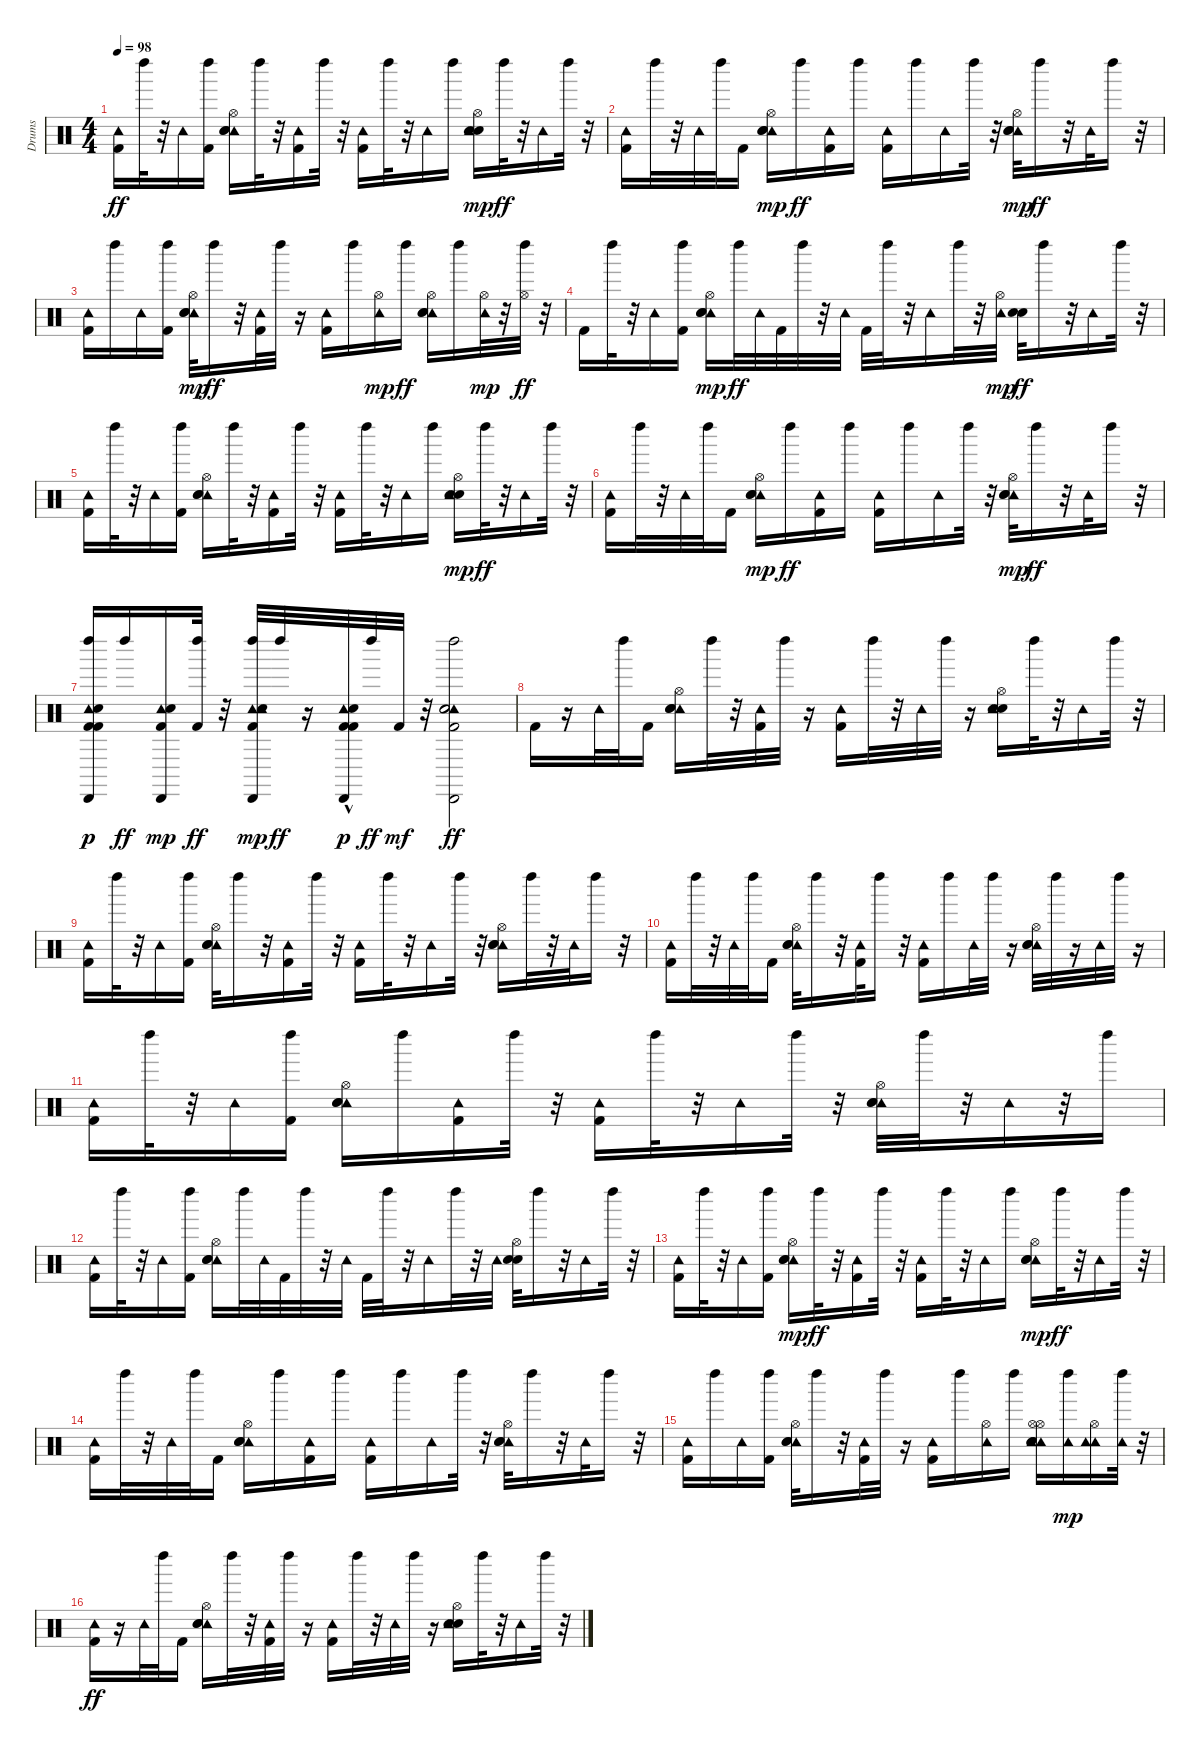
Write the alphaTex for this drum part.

\track ("Drums" "Drums") {instrument percussion}
\staff {score}
\articulation defaults
\ts (4 4)
\tempo 98
\clef neutral
\ks c
("Tambourine (hit)" "Kick (hit) 2").16{dy ff} "Left Maraca (hit)".32 r.32 "Tambourine (hit)".16 ("Left Maraca (hit)" "Kick (hit) 2").16 ("Tambourine (hit)" "Hi-Hat (open)" "Snare (hit) 2" "Electric Snare (hit)").16 "Left Maraca (hit)".32 r.32 ("Tambourine (hit)" "Kick (hit) 2").16 "Left Maraca (hit)".32 r.32 ("Kick (hit) 2" "Tambourine (hit)").16 "Left Maraca (hit)".32 r.32 "Tambourine (hit)".16 "Left Maraca (hit)".16 ("Electric Snare (hit)" "Tambourine (hit)" "Snare (hit) 2" "Hi-Hat (open)").16{dy mp} "Left Maraca (hit)".32{dy ff} r.32 "Tambourine (hit)".16 "Left Maraca (hit)".32 r.32 |
("Tambourine (hit)" "Kick (hit) 2").16 "Left Maraca (hit)".32 r.32 "Tambourine (hit)".32 "Left Maraca (hit)".32 "Kick (hit) 2".16 ("Tambourine (hit)" "Electric Snare (hit)" "Snare (hit) 2" "Hi-Hat (open)").16{dy mp} "Left Maraca (hit)".16{dy ff} ("Tambourine (hit)" "Kick (hit) 2").16 "Left Maraca (hit)".16 ("Tambourine (hit)" "Kick (hit) 2").16 "Left Maraca (hit)".16 "Tambourine (hit)".16 "Left Maraca (hit)".32 r.32 ("Tambourine (hit)" "Electric Snare (hit)" "Snare (hit) 2" "Hi-Hat (open)").32{dy mp} "Left Maraca (hit)".16{dy ff} r.32 "Tambourine (hit)".32 "Left Maraca (hit)".16 r.32 |
("Tambourine (hit)" "Kick (hit) 2").16 "Left Maraca (hit)".16 "Tambourine (hit)".16 ("Left Maraca (hit)" "Kick (hit) 2").16 ("Tambourine (hit)" "Electric Snare (hit)" "Snare (hit) 2" "Hi-Hat (open)").32{dy mp} "Left Maraca (hit)".16{dy ff} r.32 ("Tambourine (hit)" "Kick (hit) 2").32 "Left Maraca (hit)".32 r.16 ("Tambourine (hit)" "Kick (hit) 2").16 "Left Maraca (hit)".16 ("Tambourine (hit)" "Hi-Hat (open)").16{dy mp} "Left Maraca (hit)".16{dy ff} ("Tambourine (hit)" "Snare (hit) 2" "Hi-Hat (open)" "Electric Snare (hit)").16 "Left Maraca (hit)".16 ("Tambourine (hit)" "Hi-Hat (open)").32{dy mp} r.32 ("Hi-Hat (open)" "Left Maraca (hit)").32{dy ff} r.32 |
"Kick (hit) 2".16 "Left Maraca (hit)".32 r.32 "Tambourine (hit)".16 ("Left Maraca (hit)" "Kick (hit) 2").16 ("Tambourine (hit)" "Electric Snare (hit)" "Snare (hit) 2" "Hi-Hat (open)").16{dy mp} "Left Maraca (hit)".32{dy ff} "Tambourine (hit)".32 "Kick (hit) 2".32 "Left Maraca (hit)".32 r.32 "Tambourine (hit)".32 "Kick (hit) 2".32 "Left Maraca (hit)".32 r.32 "Tambourine (hit)".16 "Left Maraca (hit)".32 r.32 ("Tambourine (hit)" "Hi-Hat (open)").32{dy mp} ("Snare (hit) 2" "Electric Snare (hit)").32{dy ff} "Left Maraca (hit)".16 r.32 "Tambourine (hit)".16 "Left Maraca (hit)".32 r.32 |
("Tambourine (hit)" "Kick (hit) 2").16 "Left Maraca (hit)".32 r.32 "Tambourine (hit)".16 ("Left Maraca (hit)" "Kick (hit) 2").16 ("Tambourine (hit)" "Hi-Hat (open)" "Snare (hit) 2" "Electric Snare (hit)").16 "Left Maraca (hit)".32 r.32 ("Tambourine (hit)" "Kick (hit) 2").16 "Left Maraca (hit)".32 r.32 ("Kick (hit) 2" "Tambourine (hit)").16 "Left Maraca (hit)".32 r.32 "Tambourine (hit)".16 "Left Maraca (hit)".16 ("Electric Snare (hit)" "Tambourine (hit)" "Snare (hit) 2" "Hi-Hat (open)").16{dy mp} "Left Maraca (hit)".32{dy ff} r.32 "Tambourine (hit)".16 "Left Maraca (hit)".32 r.32 |
("Tambourine (hit)" "Kick (hit) 2").16 "Left Maraca (hit)".32 r.32 "Tambourine (hit)".32 "Left Maraca (hit)".32 "Kick (hit) 2".16 ("Tambourine (hit)" "Electric Snare (hit)" "Snare (hit) 2" "Hi-Hat (open)").16{dy mp} "Left Maraca (hit)".16{dy ff} ("Tambourine (hit)" "Kick (hit) 2").16 "Left Maraca (hit)".16 ("Tambourine (hit)" "Kick (hit) 2").16 "Left Maraca (hit)".16 "Tambourine (hit)".16 "Left Maraca (hit)".32 r.32 ("Tambourine (hit)" "Electric Snare (hit)" "Snare (hit) 2" "Hi-Hat (open)").32{dy mp} "Left Maraca (hit)".16{dy ff} r.32 "Tambourine (hit)".32 "Left Maraca (hit)".16 r.32 |
("Tambourine (hit)" "Kick (hit) 2" "Left Maraca (hit)" "Cabasa (hit)" "Kick (hit) 2" "Snare (hit) 2").16{dy p} "Left Maraca (hit)".16{dy ff} ("Tambourine (hit)" "Cabasa (hit)" "Snare (hit) 2" "Kick (hit) 2").16{dy mp} ("Left Maraca (hit)" "Kick (hit) 2").32{dy ff} r.32 ("Tambourine (hit)" "Kick (hit) 2" "Cabasa (hit)" "Left Maraca (hit)" "Electric Snare (hit)" "Tambourine (hit)").32{dy mp} "Left Maraca (hit)".32{dy ff} r.16 ("Tambourine (hit)" "Kick (hit) 2" "Snare (hit) 2"{hac} "Kick (hit) 2" "Cabasa (hit)").32{dy p} "Left Maraca (hit)".32{dy ff} "Kick (hit) 2".32{dy mf} r.32 ("Tambourine (hit)" "Kick (hit) 2" "Electric Snare (hit)" "Cabasa (hit)" "Hand Clap (hit)" "Left Maraca (hit)").2{dy ff} |
"Kick (hit) 2".16 r.16 "Tambourine (hit)".32 "Left Maraca (hit)".32 "Kick (hit) 2".16 ("Tambourine (hit)" "Hi-Hat (open)" "Snare (hit) 2" "Electric Snare (hit)").16 "Left Maraca (hit)".32 r.32 ("Tambourine (hit)" "Kick (hit) 2").32 "Left Maraca (hit)".32 r.16 ("Kick (hit) 2" "Tambourine (hit)").16 "Left Maraca (hit)".32 r.32 "Tambourine (hit)".32 "Left Maraca (hit)".32 r.16 ("Snare (hit) 2" "Electric Snare (hit)" "Hi-Hat (open)" "Tambourine (hit)").16 "Left Maraca (hit)".32 r.32 "Tambourine (hit)".16 "Left Maraca (hit)".32 r.32 |
("Tambourine (hit)" "Kick (hit) 2").16 "Left Maraca (hit)".32 r.32 "Tambourine (hit)".16 ("Left Maraca (hit)" "Kick (hit) 2").16 ("Tambourine (hit)" "Hi-Hat (open)" "Snare (hit) 2" "Electric Snare (hit)").32 "Left Maraca (hit)".16 r.32 ("Tambourine (hit)" "Kick (hit) 2").16 "Left Maraca (hit)".32 r.32 ("Tambourine (hit)" "Kick (hit) 2").16 "Left Maraca (hit)".32 r.32 "Tambourine (hit)".16 "Left Maraca (hit)".32 r.32 ("Tambourine (hit)" "Hi-Hat (open)" "Electric Snare (hit)" "Snare (hit) 2").16 "Left Maraca (hit)".32 r.32 "Tambourine (hit)".32 "Left Maraca (hit)".16 r.32 |
("Tambourine (hit)" "Kick (hit) 2").16 "Left Maraca (hit)".32 r.32 "Tambourine (hit)".32 "Left Maraca (hit)".32 "Kick (hit) 2".16 ("Tambourine (hit)" "Hi-Hat (open)" "Snare (hit) 2" "Electric Snare (hit)").32 "Left Maraca (hit)".16 r.32 ("Tambourine (hit)" "Kick (hit) 2").32 "Left Maraca (hit)".16 r.32 ("Tambourine (hit)" "Kick (hit) 2").16 "Left Maraca (hit)".16 "Tambourine (hit)".32 "Left Maraca (hit)".32 r.16 ("Tambourine (hit)" "Hi-Hat (open)" "Snare (hit) 2" "Electric Snare (hit)").32 "Left Maraca (hit)".32 r.16 "Tambourine (hit)".32 "Left Maraca (hit)".32 r.16 |
("Tambourine (hit)" "Kick (hit) 2").16 "Left Maraca (hit)".32 r.32 "Tambourine (hit)".16 ("Left Maraca (hit)" "Kick (hit) 2").16 ("Hi-Hat (open)" "Tambourine (hit)" "Electric Snare (hit)" "Snare (hit) 2").16 "Left Maraca (hit)".16 ("Tambourine (hit)" "Kick (hit) 2").16 "Left Maraca (hit)".32 r.32 ("Kick (hit) 2" "Tambourine (hit)").16 "Left Maraca (hit)".32 r.32 "Tambourine (hit)".16 "Left Maraca (hit)".32 r.32 ("Tambourine (hit)" "Hi-Hat (open)" "Snare (hit) 2" "Electric Snare (hit)").32 "Left Maraca (hit)".32 r.32 "Tambourine (hit)".16 r.32 "Left Maraca (hit)".16 |
("Tambourine (hit)" "Kick (hit) 2").16 "Left Maraca (hit)".32 r.32 "Tambourine (hit)".16 ("Left Maraca (hit)" "Kick (hit) 2").16 ("Tambourine (hit)" "Hi-Hat (open)" "Snare (hit) 2" "Electric Snare (hit)").16 "Left Maraca (hit)".32 "Tambourine (hit)".32 "Kick (hit) 2".32 "Left Maraca (hit)".32 r.32 "Tambourine (hit)".32 "Kick (hit) 2".32 "Left Maraca (hit)".32 r.32 "Tambourine (hit)".16 "Left Maraca (hit)".32 r.32 "Tambourine (hit)".32 ("Hi-Hat (open)" "Snare (hit) 2" "Electric Snare (hit)").32 "Left Maraca (hit)".16 r.32 "Tambourine (hit)".16 "Left Maraca (hit)".32 r.32 |
("Tambourine (hit)" "Kick (hit) 2").16 "Left Maraca (hit)".32 r.32 "Tambourine (hit)".16 ("Left Maraca (hit)" "Kick (hit) 2").16 ("Tambourine (hit)" "Electric Snare (hit)" "Snare (hit) 2" "Hi-Hat (open)").16{dy mp} "Left Maraca (hit)".32{dy ff} r.32 ("Tambourine (hit)" "Kick (hit) 2").16 "Left Maraca (hit)".32 r.32 ("Kick (hit) 2" "Tambourine (hit)").16 "Left Maraca (hit)".32 r.32 "Tambourine (hit)".16 "Left Maraca (hit)".16 ("Tambourine (hit)" "Electric Snare (hit)" "Snare (hit) 2" "Hi-Hat (open)").16{dy mp} "Left Maraca (hit)".32{dy ff} r.32 "Tambourine (hit)".16 "Left Maraca (hit)".32 r.32 |
("Tambourine (hit)" "Kick (hit) 2").16 "Left Maraca (hit)".32 r.32 "Tambourine (hit)".32 "Left Maraca (hit)".32 "Kick (hit) 2".16 ("Tambourine (hit)" "Hi-Hat (open)" "Electric Snare (hit)" "Snare (hit) 2").16 "Left Maraca (hit)".16 ("Tambourine (hit)" "Kick (hit) 2").16 "Left Maraca (hit)".16 ("Tambourine (hit)" "Kick (hit) 2").16 "Left Maraca (hit)".16 "Tambourine (hit)".16 "Left Maraca (hit)".32 r.32 ("Tambourine (hit)" "Hi-Hat (open)" "Snare (hit) 2" "Electric Snare (hit)").32 "Left Maraca (hit)".16 r.32 "Tambourine (hit)".32 "Left Maraca (hit)".16 r.32 |
("Tambourine (hit)" "Kick (hit) 2").16 "Left Maraca (hit)".16 "Tambourine (hit)".16 ("Left Maraca (hit)" "Kick (hit) 2").16 ("Hi-Hat (open)" "Tambourine (hit)" "Electric Snare (hit)" "Snare (hit) 2").32 "Left Maraca (hit)".16 r.32 ("Tambourine (hit)" "Kick (hit) 2").32 "Left Maraca (hit)".32 r.16 ("Tambourine (hit)" "Kick (hit) 2").16 "Left Maraca (hit)".16 ("Hi-Hat (open)" "Tambourine (hit)").16 "Left Maraca (hit)".16 ("Tambourine (hit)" "Hi-Hat (open)" "Hi-Hat (open)" "Tambourine (hit)" "Electric Snare (hit)" "Snare (hit) 2").16 ("Left Maraca (hit)" "Tambourine (hit)").16{dy mp} ("Hi-Hat (open)" "Tambourine (hit)" "Tambourine (hit)").16 ("Left Maraca (hit)" "Tambourine (hit)").32 r.32 |
("Tambourine (hit)" "Kick (hit) 2").16{dy ff} r.16 "Tambourine (hit)".32 "Left Maraca (hit)".32 "Kick (hit) 2".16 ("Tambourine (hit)" "Hi-Hat (open)" "Snare (hit) 2" "Electric Snare (hit)").16 "Left Maraca (hit)".32 r.32 ("Tambourine (hit)" "Kick (hit) 2").32 "Left Maraca (hit)".32 r.16 ("Kick (hit) 2" "Tambourine (hit)").16 "Left Maraca (hit)".32 r.32 "Tambourine (hit)".32 "Left Maraca (hit)".32 r.16 ("Snare (hit) 2" "Electric Snare (hit)" "Hi-Hat (open)" "Tambourine (hit)").16 "Left Maraca (hit)".32 r.32 "Tambourine (hit)".16 "Left Maraca (hit)".32 r.32
